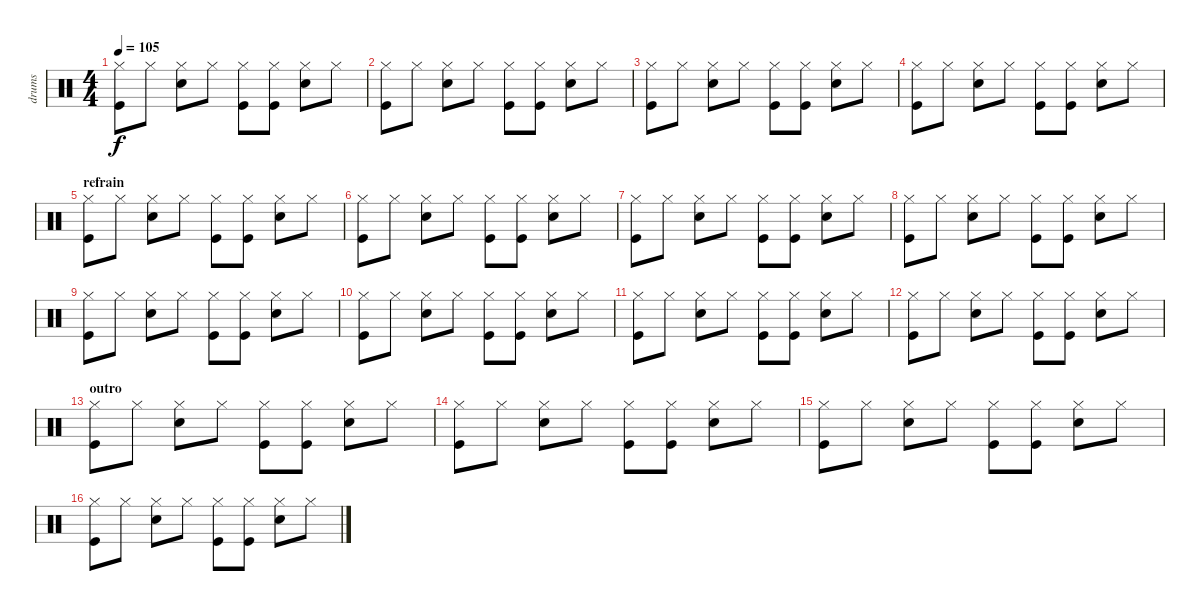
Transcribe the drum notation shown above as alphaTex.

\track ("drums" "drums") {instrument percussion}
\staff {score}
\articulation defaults
\ts (4 4)
\tempo 105
\clef neutral
\ks c
("Hi-Hat (closed)" "Kick (hit)").8{dy f} "Hi-Hat (closed)".8 ("Hi-Hat (closed)" "Snare (hit) 2").8 "Hi-Hat (closed)".8 ("Hi-Hat (closed)" "Kick (hit)").8 ("Hi-Hat (closed)" "Kick (hit)").8 ("Hi-Hat (closed)" "Snare (hit) 2").8 "Hi-Hat (closed)".8 |
("Hi-Hat (closed)" "Kick (hit)").8 "Hi-Hat (closed)".8 ("Hi-Hat (closed)" "Snare (hit) 2").8 "Hi-Hat (closed)".8 ("Hi-Hat (closed)" "Kick (hit)").8 ("Hi-Hat (closed)" "Kick (hit)").8 ("Hi-Hat (closed)" "Snare (hit) 2").8 "Hi-Hat (closed)".8 |
("Hi-Hat (closed)" "Kick (hit)").8 "Hi-Hat (closed)".8 ("Hi-Hat (closed)" "Snare (hit) 2").8 "Hi-Hat (closed)".8 ("Hi-Hat (closed)" "Kick (hit)").8 ("Hi-Hat (closed)" "Kick (hit)").8 ("Hi-Hat (closed)" "Snare (hit) 2").8 "Hi-Hat (closed)".8 |
("Hi-Hat (closed)" "Kick (hit)").8 "Hi-Hat (closed)".8 ("Hi-Hat (closed)" "Snare (hit) 2").8 "Hi-Hat (closed)".8 ("Hi-Hat (closed)" "Kick (hit)").8 ("Hi-Hat (closed)" "Kick (hit)").8 ("Hi-Hat (closed)" "Snare (hit) 2").8 "Hi-Hat (closed)".8 |
\section ("" "refrain")
("Hi-Hat (closed)" "Kick (hit)").8 "Hi-Hat (closed)".8 ("Hi-Hat (closed)" "Snare (hit) 2").8 "Hi-Hat (closed)".8 ("Hi-Hat (closed)" "Kick (hit)").8 ("Hi-Hat (closed)" "Kick (hit)").8 ("Hi-Hat (closed)" "Snare (hit) 2").8 "Hi-Hat (closed)".8 |
("Hi-Hat (closed)" "Kick (hit)").8 "Hi-Hat (closed)".8 ("Hi-Hat (closed)" "Snare (hit) 2").8 "Hi-Hat (closed)".8 ("Hi-Hat (closed)" "Kick (hit)").8 ("Hi-Hat (closed)" "Kick (hit)").8 ("Hi-Hat (closed)" "Snare (hit) 2").8 "Hi-Hat (closed)".8 |
("Hi-Hat (closed)" "Kick (hit)").8 "Hi-Hat (closed)".8 ("Hi-Hat (closed)" "Snare (hit) 2").8 "Hi-Hat (closed)".8 ("Hi-Hat (closed)" "Kick (hit)").8 ("Hi-Hat (closed)" "Kick (hit)").8 ("Hi-Hat (closed)" "Snare (hit) 2").8 "Hi-Hat (closed)".8 |
("Hi-Hat (closed)" "Kick (hit)").8 "Hi-Hat (closed)".8 ("Hi-Hat (closed)" "Snare (hit) 2").8 "Hi-Hat (closed)".8 ("Hi-Hat (closed)" "Kick (hit)").8 ("Hi-Hat (closed)" "Kick (hit)").8 ("Hi-Hat (closed)" "Snare (hit) 2").8 "Hi-Hat (closed)".8 |
("Hi-Hat (closed)" "Kick (hit)").8 "Hi-Hat (closed)".8 ("Hi-Hat (closed)" "Snare (hit) 2").8 "Hi-Hat (closed)".8 ("Hi-Hat (closed)" "Kick (hit)").8 ("Hi-Hat (closed)" "Kick (hit)").8 ("Hi-Hat (closed)" "Snare (hit) 2").8 "Hi-Hat (closed)".8 |
("Hi-Hat (closed)" "Kick (hit)").8 "Hi-Hat (closed)".8 ("Hi-Hat (closed)" "Snare (hit) 2").8 "Hi-Hat (closed)".8 ("Hi-Hat (closed)" "Kick (hit)").8 ("Hi-Hat (closed)" "Kick (hit)").8 ("Hi-Hat (closed)" "Snare (hit) 2").8 "Hi-Hat (closed)".8 |
("Hi-Hat (closed)" "Kick (hit)").8 "Hi-Hat (closed)".8 ("Hi-Hat (closed)" "Snare (hit) 2").8 "Hi-Hat (closed)".8 ("Hi-Hat (closed)" "Kick (hit)").8 ("Hi-Hat (closed)" "Kick (hit)").8 ("Hi-Hat (closed)" "Snare (hit) 2").8 "Hi-Hat (closed)".8 |
("Hi-Hat (closed)" "Kick (hit)").8 "Hi-Hat (closed)".8 ("Hi-Hat (closed)" "Snare (hit) 2").8 "Hi-Hat (closed)".8 ("Hi-Hat (closed)" "Kick (hit)").8 ("Hi-Hat (closed)" "Kick (hit)").8 ("Hi-Hat (closed)" "Snare (hit) 2").8 "Hi-Hat (closed)".8 |
\section ("" "outro")
("Hi-Hat (closed)" "Kick (hit)").8 "Hi-Hat (closed)".8 ("Hi-Hat (closed)" "Snare (hit) 2").8 "Hi-Hat (closed)".8 ("Hi-Hat (closed)" "Kick (hit)").8 ("Hi-Hat (closed)" "Kick (hit)").8 ("Hi-Hat (closed)" "Snare (hit) 2").8 "Hi-Hat (closed)".8 |
("Hi-Hat (closed)" "Kick (hit)").8 "Hi-Hat (closed)".8 ("Hi-Hat (closed)" "Snare (hit) 2").8 "Hi-Hat (closed)".8 ("Hi-Hat (closed)" "Kick (hit)").8 ("Hi-Hat (closed)" "Kick (hit)").8 ("Hi-Hat (closed)" "Snare (hit) 2").8 "Hi-Hat (closed)".8 |
("Hi-Hat (closed)" "Kick (hit)").8 "Hi-Hat (closed)".8 ("Hi-Hat (closed)" "Snare (hit) 2").8 "Hi-Hat (closed)".8 ("Hi-Hat (closed)" "Kick (hit)").8 ("Hi-Hat (closed)" "Kick (hit)").8 ("Hi-Hat (closed)" "Snare (hit) 2").8 "Hi-Hat (closed)".8 |
("Hi-Hat (closed)" "Kick (hit)").8 "Hi-Hat (closed)".8 ("Hi-Hat (closed)" "Snare (hit) 2").8 "Hi-Hat (closed)".8 ("Hi-Hat (closed)" "Kick (hit)").8 ("Hi-Hat (closed)" "Kick (hit)").8 ("Hi-Hat (closed)" "Snare (hit) 2").8 "Hi-Hat (closed)".8
